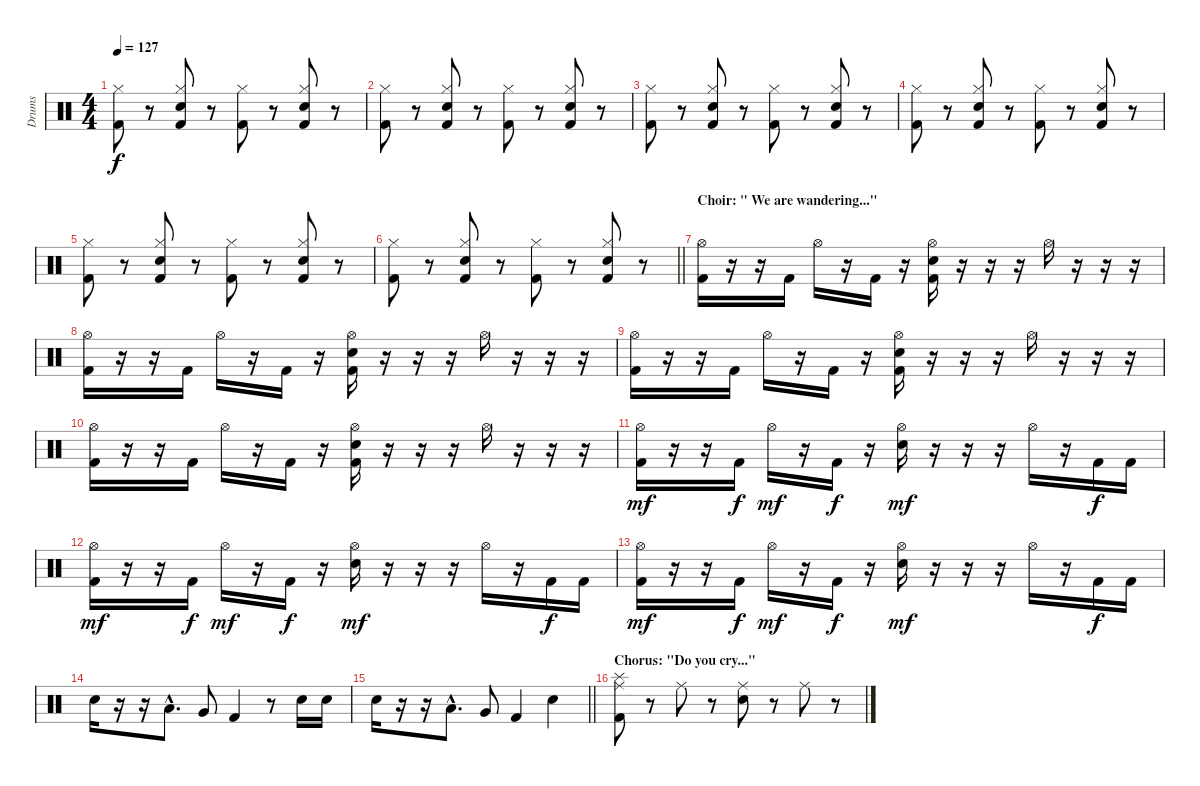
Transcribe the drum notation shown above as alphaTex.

\track ("Drums" "Drums") {instrument percussion}
\staff {score}
\articulation defaults
\ts (4 4)
\tempo 127
\clef neutral
\ks c
("Kick (hit) 2" "Hi-Hat (closed)").8{dy f} r.8 ("Kick (hit) 2" "Electric Snare (hit)" "Hi-Hat (closed)").8 r.8 ("Kick (hit) 2" "Hi-Hat (closed)").8 r.8 ("Kick (hit) 2" "Electric Snare (hit)" "Hi-Hat (closed)").8 r.8 |
("Kick (hit) 2" "Hi-Hat (closed)").8 r.8 ("Kick (hit) 2" "Electric Snare (hit)" "Hi-Hat (closed)").8 r.8 ("Kick (hit) 2" "Hi-Hat (closed)").8 r.8 ("Kick (hit) 2" "Electric Snare (hit)" "Hi-Hat (closed)").8 r.8 |
("Kick (hit) 2" "Hi-Hat (closed)").8 r.8 ("Kick (hit) 2" "Electric Snare (hit)" "Hi-Hat (closed)").8 r.8 ("Kick (hit) 2" "Hi-Hat (closed)").8 r.8 ("Kick (hit) 2" "Electric Snare (hit)" "Hi-Hat (closed)").8 r.8 |
("Kick (hit) 2" "Hi-Hat (closed)").8 r.8 ("Kick (hit) 2" "Electric Snare (hit)" "Hi-Hat (closed)").8 r.8 ("Kick (hit) 2" "Hi-Hat (closed)").8 r.8 ("Kick (hit) 2" "Electric Snare (hit)" "Hi-Hat (closed)").8 r.8 |
("Kick (hit) 2" "Hi-Hat (closed)").8 r.8 ("Kick (hit) 2" "Electric Snare (hit)" "Hi-Hat (closed)").8 r.8 ("Kick (hit) 2" "Hi-Hat (closed)").8 r.8 ("Kick (hit) 2" "Electric Snare (hit)" "Hi-Hat (closed)").8 r.8 |
\barLineRight lightlight
("Kick (hit) 2" "Hi-Hat (closed)").8 r.8 ("Kick (hit) 2" "Electric Snare (hit)" "Hi-Hat (closed)").8 r.8 ("Kick (hit) 2" "Hi-Hat (closed)").8 r.8 ("Kick (hit) 2" "Electric Snare (hit)" "Hi-Hat (closed)").8 r.8 |
\section ("" "Choir: \" We are wandering...\"")
("Kick (hit) 2" "Hi-Hat (open)").16 r.16 r.16 "Kick (hit) 2".16 "Hi-Hat (open)".16 r.16 "Kick (hit) 2".16 r.16 ("Kick (hit) 2" "Electric Snare (hit)" "Hi-Hat (open)").16 r.16 r.16 r.16 "Hi-Hat (open)".16 r.16 r.16 r.16 |
("Kick (hit) 2" "Hi-Hat (open)").16 r.16 r.16 "Kick (hit) 2".16 "Hi-Hat (open)".16 r.16 "Kick (hit) 2".16 r.16 ("Kick (hit) 2" "Electric Snare (hit)" "Hi-Hat (open)").16 r.16 r.16 r.16 "Hi-Hat (open)".16 r.16 r.16 r.16 |
("Kick (hit) 2" "Hi-Hat (open)").16 r.16 r.16 "Kick (hit) 2".16 "Hi-Hat (open)".16 r.16 "Kick (hit) 2".16 r.16 ("Kick (hit) 2" "Electric Snare (hit)" "Hi-Hat (open)").16 r.16 r.16 r.16 "Hi-Hat (open)".16 r.16 r.16 r.16 |
("Kick (hit) 2" "Hi-Hat (open)").16 r.16 r.16 "Kick (hit) 2".16 "Hi-Hat (open)".16 r.16 "Kick (hit) 2".16 r.16 ("Kick (hit) 2" "Electric Snare (hit)" "Hi-Hat (open)").16 r.16 r.16 r.16 "Hi-Hat (open)".16 r.16 r.16 r.16 |
("Kick (hit) 2" "Hi-Hat (open)").16{dy mf} r.16 r.16 "Kick (hit) 2".16{dy f} "Hi-Hat (open)".16{dy mf} r.16 "Kick (hit) 2".16{dy f} r.16 ("Electric Snare (hit)" "Hi-Hat (open)").16{dy mf} r.16 r.16 r.16 "Hi-Hat (open)".16 r.16 "Kick (hit) 2".16{dy f} "Kick (hit) 2".16 |
("Kick (hit) 2" "Hi-Hat (open)").16{dy mf} r.16 r.16 "Kick (hit) 2".16{dy f} "Hi-Hat (open)".16{dy mf} r.16 "Kick (hit) 2".16{dy f} r.16 ("Electric Snare (hit)" "Hi-Hat (open)").16{dy mf} r.16 r.16 r.16 "Hi-Hat (open)".16 r.16 "Kick (hit) 2".16{dy f} "Kick (hit) 2".16 |
("Kick (hit) 2" "Hi-Hat (open)").16{dy mf} r.16 r.16 "Kick (hit) 2".16{dy f} "Hi-Hat (open)".16{dy mf} r.16 "Kick (hit) 2".16{dy f} r.16 ("Electric Snare (hit)" "Hi-Hat (open)").16{dy mf} r.16 r.16 r.16 "Hi-Hat (open)".16 r.16 "Kick (hit) 2".16{dy f} "Kick (hit) 2".16 |
"Electric Snare (hit)".16 r.16 r.16 "Low Tom (hit)"{hac}.8{d} "Very Low Tom (hit)".8 "Kick (hit) 2".4 r.8 "Electric Snare (hit)".16 "Electric Snare (hit)".16 |
\barLineRight lightlight "Electric Snare (hit)".16
r.16 r.16 "Low Tom (hit)"{hac}.8{d} "Very Low Tom (hit)".8 "Kick (hit) 2".4 "Electric Snare (hit)".4 |
\section ("" "Chorus: \"Do you cry...\"")
("Ride (middle)" "Kick (hit) 2" "Splash (hit)").8 r.8 "Ride (middle)".8 r.8 ("Ride (middle)" "Electric Snare (hit)").8 r.8 "Ride (middle)".8 r.8
